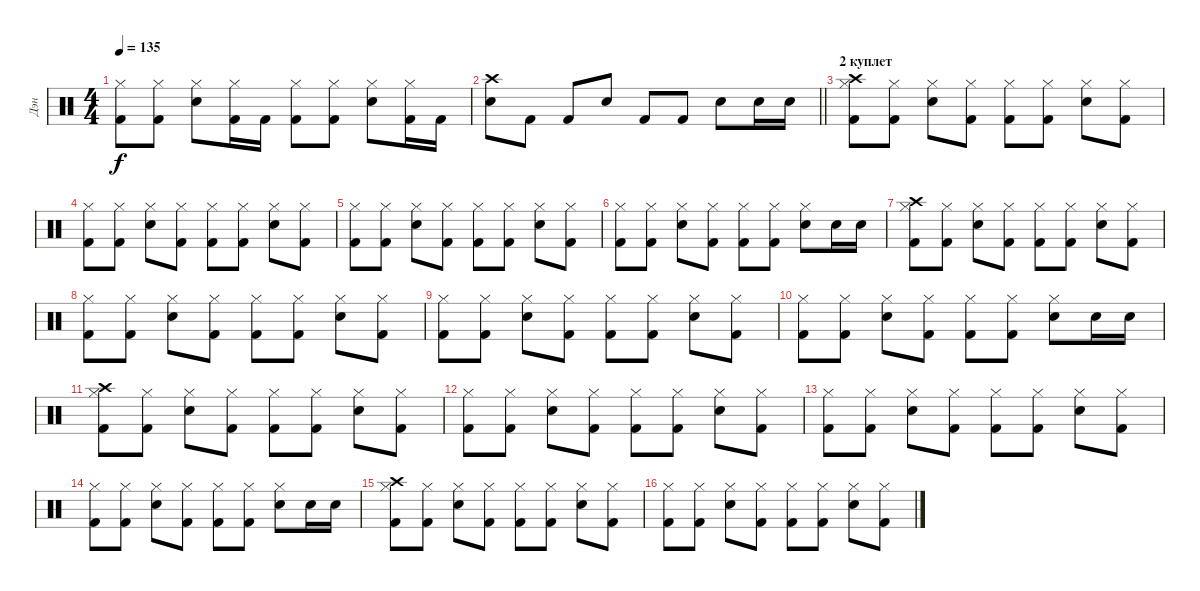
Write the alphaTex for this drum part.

\track ("Дэн" "Дэн") {instrument percussion}
\staff {score}
\articulation defaults
\ts (4 4)
\tempo 135
\clef neutral
\ks c
("Kick (hit) 2" "Hi-Hat (closed)").8{dy f} ("Kick (hit) 2" "Hi-Hat (closed)").8 ("Electric Snare (hit)" "Hi-Hat (closed)").8 ("Kick (hit) 2" "Hi-Hat (closed)").16 "Kick (hit) 2".16 ("Kick (hit) 2" "Hi-Hat (closed)").8 ("Kick (hit) 2" "Hi-Hat (closed)").8 ("Electric Snare (hit)" "Hi-Hat (closed)").8 ("Kick (hit) 2" "Hi-Hat (closed)").16 "Kick (hit) 2".16 |
\barLineRight lightlight
("Electric Snare (hit)" "Crash high (hit)").8 "Kick (hit) 2".8 "Kick (hit) 2".8 "Electric Snare (hit)".8 "Kick (hit) 2".8 "Kick (hit) 2".8 "Electric Snare (hit)".8 "Electric Snare (hit)".16 "Electric Snare (hit)".16 |
\section ("" "2 куплет")
("Kick (hit) 2" "Crash high (hit)" "Hi-Hat (closed)").8 ("Kick (hit) 2" "Hi-Hat (closed)").8 ("Electric Snare (hit)" "Hi-Hat (closed)").8 ("Kick (hit) 2" "Hi-Hat (closed)").8 ("Kick (hit) 2" "Hi-Hat (closed)").8 ("Kick (hit) 2" "Hi-Hat (closed)").8 ("Electric Snare (hit)" "Hi-Hat (closed)").8 ("Kick (hit) 2" "Hi-Hat (closed)").8 |
("Kick (hit) 2" "Hi-Hat (closed)").8 ("Kick (hit) 2" "Hi-Hat (closed)").8 ("Electric Snare (hit)" "Hi-Hat (closed)").8 ("Kick (hit) 2" "Hi-Hat (closed)").8 ("Kick (hit) 2" "Hi-Hat (closed)").8 ("Kick (hit) 2" "Hi-Hat (closed)").8 ("Electric Snare (hit)" "Hi-Hat (closed)").8 ("Kick (hit) 2" "Hi-Hat (closed)").8 |
("Kick (hit) 2" "Hi-Hat (closed)").8 ("Kick (hit) 2" "Hi-Hat (closed)").8 ("Electric Snare (hit)" "Hi-Hat (closed)").8 ("Kick (hit) 2" "Hi-Hat (closed)").8 ("Kick (hit) 2" "Hi-Hat (closed)").8 ("Kick (hit) 2" "Hi-Hat (closed)").8 ("Electric Snare (hit)" "Hi-Hat (closed)").8 ("Kick (hit) 2" "Hi-Hat (closed)").8 |
("Kick (hit) 2" "Hi-Hat (closed)").8 ("Kick (hit) 2" "Hi-Hat (closed)").8 ("Electric Snare (hit)" "Hi-Hat (closed)").8 ("Kick (hit) 2" "Hi-Hat (closed)").8 ("Kick (hit) 2" "Hi-Hat (closed)").8 ("Kick (hit) 2" "Hi-Hat (closed)").8 ("Electric Snare (hit)" "Hi-Hat (closed)").8 "Electric Snare (hit)".16 "Electric Snare (hit)".16 |
("Kick (hit) 2" "Crash high (hit)" "Hi-Hat (closed)").8 ("Kick (hit) 2" "Hi-Hat (closed)").8 ("Electric Snare (hit)" "Hi-Hat (closed)").8 ("Kick (hit) 2" "Hi-Hat (closed)").8 ("Kick (hit) 2" "Hi-Hat (closed)").8 ("Kick (hit) 2" "Hi-Hat (closed)").8 ("Electric Snare (hit)" "Hi-Hat (closed)").8 ("Kick (hit) 2" "Hi-Hat (closed)").8 |
("Kick (hit) 2" "Hi-Hat (closed)").8 ("Kick (hit) 2" "Hi-Hat (closed)").8 ("Electric Snare (hit)" "Hi-Hat (closed)").8 ("Kick (hit) 2" "Hi-Hat (closed)").8 ("Kick (hit) 2" "Hi-Hat (closed)").8 ("Kick (hit) 2" "Hi-Hat (closed)").8 ("Electric Snare (hit)" "Hi-Hat (closed)").8 ("Kick (hit) 2" "Hi-Hat (closed)").8 |
("Kick (hit) 2" "Hi-Hat (closed)").8 ("Kick (hit) 2" "Hi-Hat (closed)").8 ("Electric Snare (hit)" "Hi-Hat (closed)").8 ("Kick (hit) 2" "Hi-Hat (closed)").8 ("Kick (hit) 2" "Hi-Hat (closed)").8 ("Kick (hit) 2" "Hi-Hat (closed)").8 ("Electric Snare (hit)" "Hi-Hat (closed)").8 ("Kick (hit) 2" "Hi-Hat (closed)").8 |
("Kick (hit) 2" "Hi-Hat (closed)").8 ("Kick (hit) 2" "Hi-Hat (closed)").8 ("Electric Snare (hit)" "Hi-Hat (closed)").8 ("Kick (hit) 2" "Hi-Hat (closed)").8 ("Kick (hit) 2" "Hi-Hat (closed)").8 ("Kick (hit) 2" "Hi-Hat (closed)").8 ("Electric Snare (hit)" "Hi-Hat (closed)").8 "Electric Snare (hit)".16 "Electric Snare (hit)".16 |
("Kick (hit) 2" "Crash high (hit)" "Hi-Hat (closed)").8 ("Kick (hit) 2" "Hi-Hat (closed)").8 ("Electric Snare (hit)" "Hi-Hat (closed)").8 ("Kick (hit) 2" "Hi-Hat (closed)").8 ("Kick (hit) 2" "Hi-Hat (closed)").8 ("Kick (hit) 2" "Hi-Hat (closed)").8 ("Electric Snare (hit)" "Hi-Hat (closed)").8 ("Kick (hit) 2" "Hi-Hat (closed)").8 |
("Kick (hit) 2" "Hi-Hat (closed)").8 ("Kick (hit) 2" "Hi-Hat (closed)").8 ("Electric Snare (hit)" "Hi-Hat (closed)").8 ("Kick (hit) 2" "Hi-Hat (closed)").8 ("Kick (hit) 2" "Hi-Hat (closed)").8 ("Kick (hit) 2" "Hi-Hat (closed)").8 ("Electric Snare (hit)" "Hi-Hat (closed)").8 ("Kick (hit) 2" "Hi-Hat (closed)").8 |
("Kick (hit) 2" "Hi-Hat (closed)").8 ("Kick (hit) 2" "Hi-Hat (closed)").8 ("Electric Snare (hit)" "Hi-Hat (closed)").8 ("Kick (hit) 2" "Hi-Hat (closed)").8 ("Kick (hit) 2" "Hi-Hat (closed)").8 ("Kick (hit) 2" "Hi-Hat (closed)").8 ("Electric Snare (hit)" "Hi-Hat (closed)").8 ("Kick (hit) 2" "Hi-Hat (closed)").8 |
("Kick (hit) 2" "Hi-Hat (closed)").8 ("Kick (hit) 2" "Hi-Hat (closed)").8 ("Electric Snare (hit)" "Hi-Hat (closed)").8 ("Kick (hit) 2" "Hi-Hat (closed)").8 ("Kick (hit) 2" "Hi-Hat (closed)").8 ("Kick (hit) 2" "Hi-Hat (closed)").8 ("Electric Snare (hit)" "Hi-Hat (closed)").8 "Electric Snare (hit)".16 "Electric Snare (hit)".16 |
("Kick (hit) 2" "Crash high (hit)" "Hi-Hat (closed)").8 ("Kick (hit) 2" "Hi-Hat (closed)").8 ("Electric Snare (hit)" "Hi-Hat (closed)").8 ("Kick (hit) 2" "Hi-Hat (closed)").8 ("Kick (hit) 2" "Hi-Hat (closed)").8 ("Kick (hit) 2" "Hi-Hat (closed)").8 ("Electric Snare (hit)" "Hi-Hat (closed)").8 ("Kick (hit) 2" "Hi-Hat (closed)").8 |
("Kick (hit) 2" "Hi-Hat (closed)").8 ("Kick (hit) 2" "Hi-Hat (closed)").8 ("Electric Snare (hit)" "Hi-Hat (closed)").8 ("Kick (hit) 2" "Hi-Hat (closed)").8 ("Kick (hit) 2" "Hi-Hat (closed)").8 ("Kick (hit) 2" "Hi-Hat (closed)").8 ("Electric Snare (hit)" "Hi-Hat (closed)").8 ("Kick (hit) 2" "Hi-Hat (closed)").8
